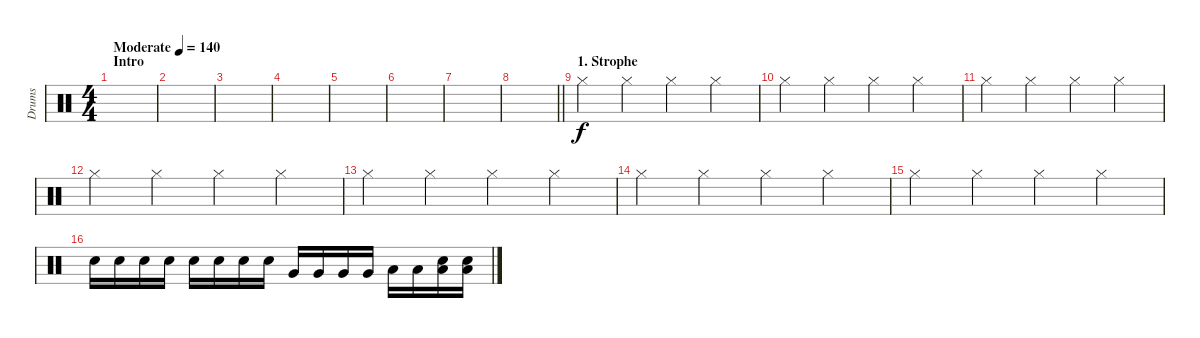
\track ("Drums" "Drums") {instrument percussion}
\staff {score}
\articulation defaults
\ts (4 4)
\section ("" "Intro")
\tempo (140 "Moderate")
\clef neutral
\ks c
|
|
|
|
|
|
|
\barLineRight lightlight
|
\section ("" "1. Strophe")
"Hi-Hat (closed)".4 "Hi-Hat (closed)".4 "Hi-Hat (closed)".4 "Hi-Hat (closed)".4 |
"Hi-Hat (closed)".4 "Hi-Hat (closed)".4 "Hi-Hat (closed)".4 "Hi-Hat (closed)".4 |
"Hi-Hat (closed)".4 "Hi-Hat (closed)".4 "Hi-Hat (closed)".4 "Hi-Hat (closed)".4 |
"Hi-Hat (closed)".4 "Hi-Hat (closed)".4 "Hi-Hat (closed)".4 "Hi-Hat (closed)".4 |
"Hi-Hat (closed)".4 "Hi-Hat (closed)".4 "Hi-Hat (closed)".4 "Hi-Hat (closed)".4 |
"Hi-Hat (closed)".4 "Hi-Hat (closed)".4 "Hi-Hat (closed)".4 "Hi-Hat (closed)".4 |
"Hi-Hat (closed)".4 "Hi-Hat (closed)".4 "Hi-Hat (closed)".4 "Hi-Hat (closed)".4 |
"Electric Snare (hit)".16{volume 15} "Electric Snare (hit)".16 "Electric Snare (hit)".16 "Electric Snare (hit)".16 "Electric Snare (hit)".16 "Electric Snare (hit)".16 "Electric Snare (hit)".16 "Electric Snare (hit)".16 "Very Low Tom (hit)".16 "Very Low Tom (hit)".16 "Very Low Tom (hit)".16 "Very Low Tom (hit)".16 "Low Floor Tom (hit)".16 "Low Floor Tom (hit)".16 ("Electric Snare (hit)" "Low Floor Tom (hit)").16 ("Electric Snare (hit)" "Low Floor Tom (hit)").16
